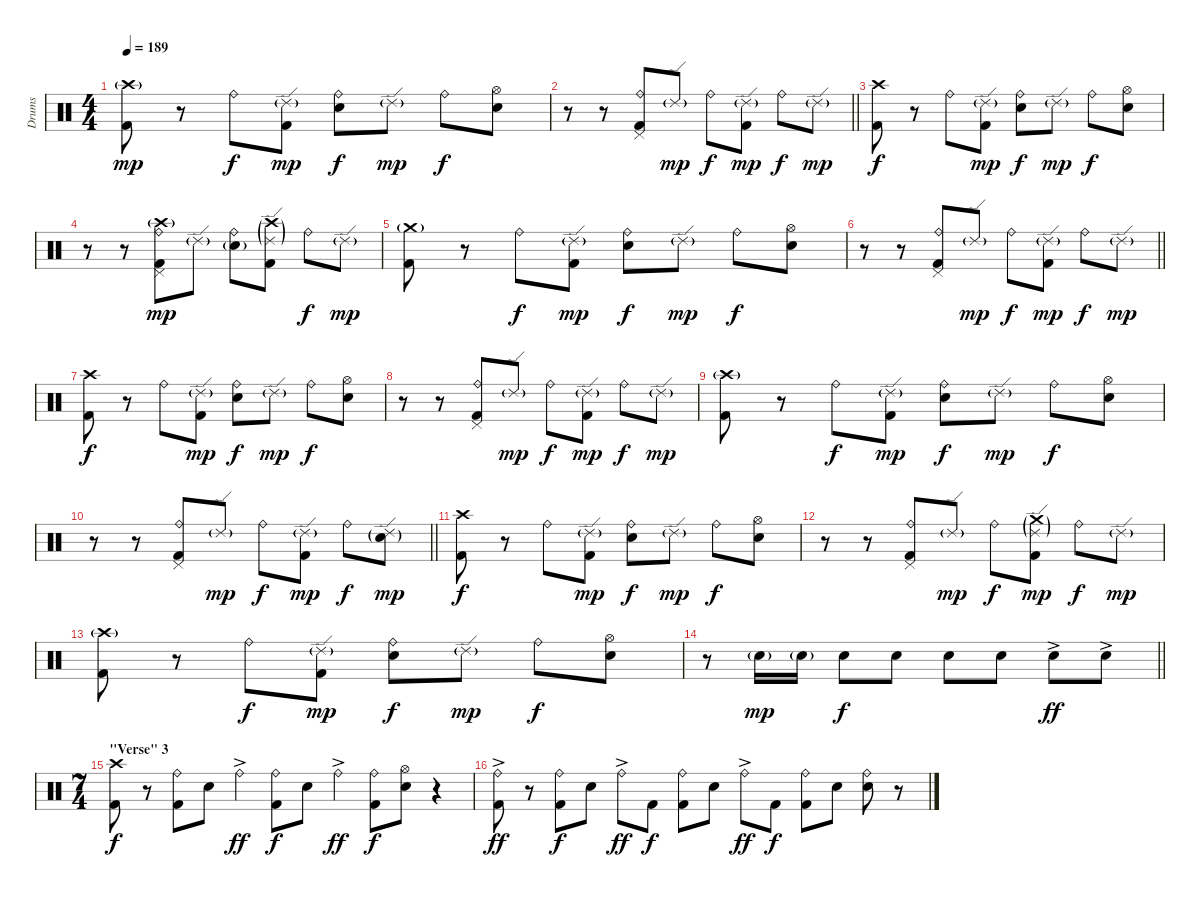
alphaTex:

\track ("Drums" "Drums") {instrument percussion}
\staff {score}
\articulation defaults
\ts (4 4)
\tempo 189
\clef neutral
\ks c
("Crash high (hit)"{g} "Kick (hit) 2").8{dy mp} r.8 "Ride (bell)".8{dy f} ("Ride (edge) 2"{g} "Kick (hit) 2").8{dy mp} ("Ride (bell)" "Snare (hit) 2").8{dy f} "Ride (edge) 2"{g}.8{dy mp} "Ride (bell)".8{dy f} ("Hi-Hat (open)" "Snare (hit) 2").8 |
\barLineRight lightlight
r.8 r.8 ("Ride (bell)" "Pedal Hi-Hat (hit)" "Kick (hit) 2").8 "Ride (edge) 2"{g}.8{dy mp} "Ride (bell)".8{dy f} ("Ride (edge) 2"{g} "Kick (hit) 2").8{dy mp} "Ride (bell)".8{dy f} "Ride (edge) 2"{g}.8{dy mp} |
\section ("" "")
("Crash high (hit)" "Kick (hit) 2").8{dy f} r.8 "Ride (bell)".8 ("Ride (edge) 2"{g} "Kick (hit) 2").8{dy mp} ("Ride (bell)" "Snare (hit) 2").8{dy f} "Ride (edge) 2"{g}.8{dy mp} "Ride (bell)".8{dy f} ("Hi-Hat (open)" "Snare (hit) 2").8 |
r.8 r.8 ("Crash high (hit)"{g} "Ride (bell)" "Pedal Hi-Hat (hit)" "Kick (hit) 2").8{dy mp} "Ride (edge) 2"{g}.8 ("Ride (bell)" "Electric Snare (hit)"{g}).8 ("Crash high (hit)"{g} "Ride (edge) 2"{g} "Kick (hit) 2").8 "Ride (bell)".8{dy f} "Ride (edge) 2"{g}.8{dy mp} |
("Crash medium (hit)"{g} "Kick (hit) 2").8 r.8 "Ride (bell)".8{dy f} ("Ride (edge) 2"{g} "Kick (hit) 2").8{dy mp} ("Ride (bell)" "Snare (hit) 2").8{dy f} "Ride (edge) 2"{g}.8{dy mp} "Ride (bell)".8{dy f} ("Hi-Hat (open)" "Snare (hit) 2").8 |
\barLineRight lightlight
r.8 r.8 ("Ride (bell)" "Pedal Hi-Hat (hit)" "Kick (hit) 2").8 "Ride (edge) 2"{g}.8{dy mp} "Ride (bell)".8{dy f} ("Ride (edge) 2"{g} "Kick (hit) 2").8{dy mp} "Ride (bell)".8{dy f} "Ride (edge) 2"{g}.8{dy mp} |
\section ("" "")
("Crash high (hit)" "Kick (hit) 2").8{dy f} r.8 "Ride (bell)".8 ("Ride (edge) 2"{g} "Kick (hit) 2").8{dy mp} ("Ride (bell)" "Snare (hit) 2").8{dy f} "Ride (edge) 2"{g}.8{dy mp} "Ride (bell)".8{dy f} ("Hi-Hat (open)" "Snare (hit) 2").8 |
r.8 r.8 ("Ride (bell)" "Pedal Hi-Hat (hit)" "Kick (hit) 2").8 "Ride (edge) 2"{g}.8{dy mp} "Ride (bell)".8{dy f} ("Ride (edge) 2"{g} "Kick (hit) 2").8{dy mp} "Ride (bell)".8{dy f} "Ride (edge) 2"{g}.8{dy mp} |
("Crash high (hit)"{g} "Kick (hit) 2").8 r.8 "Ride (bell)".8{dy f} ("Ride (edge) 2"{g} "Kick (hit) 2").8{dy mp} ("Ride (bell)" "Snare (hit) 2").8{dy f} "Ride (edge) 2"{g}.8{dy mp} "Ride (bell)".8{dy f} ("Hi-Hat (open)" "Snare (hit) 2").8 |
\barLineRight lightlight
r.8 r.8 ("Ride (bell)" "Pedal Hi-Hat (hit)" "Kick (hit) 2").8 "Ride (edge) 2"{g}.8{dy mp} "Ride (bell)".8{dy f} ("Ride (edge) 2"{g} "Kick (hit) 2").8{dy mp} "Ride (bell)".8{dy f} ("Ride (edge) 2"{g} "Electric Snare (hit)"{g}).8{dy mp} |
\section ("" "")
("Crash high (hit)" "Kick (hit) 2").8{dy f} r.8 "Ride (bell)".8 ("Ride (edge) 2"{g} "Kick (hit) 2").8{dy mp} ("Ride (bell)" "Snare (hit) 2").8{dy f} "Ride (edge) 2"{g}.8{dy mp} "Ride (bell)".8{dy f} ("Hi-Hat (open)" "Snare (hit) 2").8 |
r.8 r.8 ("Ride (bell)" "Pedal Hi-Hat (hit)" "Kick (hit) 2").8 "Ride (edge) 2"{g}.8{dy mp} "Ride (bell)".8{dy f} ("Crash medium (hit)"{g} "Ride (edge) 2"{g} "Kick (hit) 2").8{dy mp} "Ride (bell)".8{dy f} "Ride (edge) 2"{g}.8{dy mp} |
("Crash high (hit)"{g} "Kick (hit) 2").8 r.8 "Ride (bell)".8{dy f} ("Ride (edge) 2"{g} "Kick (hit) 2").8{dy mp} ("Ride (bell)" "Snare (hit) 2").8{dy f} "Ride (edge) 2"{g}.8{dy mp} "Ride (bell)".8{dy f} ("Hi-Hat (open)" "Snare (hit) 2").8 |
\barLineRight lightlight
r.8 "Electric Snare (hit)"{g}.16{dy mp} "Electric Snare (hit)"{g}.16 "Electric Snare (hit)".8{dy f} "Electric Snare (hit)".8 "Snare (hit) 2".8 "Snare (hit) 2".8 "Snare (hit) 2"{ac}.8{dy ff} "Snare (hit) 2"{ac}.8 |
\ts (7 4)
\section ("" "\"Verse\" 3")
("Crash high (hit)" "Kick (hit) 2").8{dy f} r.8 ("Ride (bell)" "Kick (hit) 2").8 "Snare (hit) 2".8 "Ride (bell)"{ac}.4{dy ff} ("Ride (bell)" "Kick (hit) 2").8{dy f} "Snare (hit) 2".8 "Ride (bell)"{ac}.4{dy ff} ("Ride (bell)" "Kick (hit) 2").8{dy f} ("Hi-Hat (open)" "Snare (hit) 2").8 r.4 |
("Ride (bell)"{ac} "Kick (hit) 2").8{dy ff} r.8 ("Ride (bell)" "Kick (hit) 2").8{dy f} "Snare (hit) 2".8 "Ride (bell)"{ac}.8{dy ff} "Kick (hit) 2".8{dy f} ("Ride (bell)" "Kick (hit) 2").8 "Snare (hit) 2".8 "Ride (bell)"{ac}.8{dy ff} "Kick (hit) 2".8{dy f} ("Ride (bell)" "Kick (hit) 2").8 "Snare (hit) 2".8 ("Ride (bell)" "Electric Snare (hit)").8 r.8
